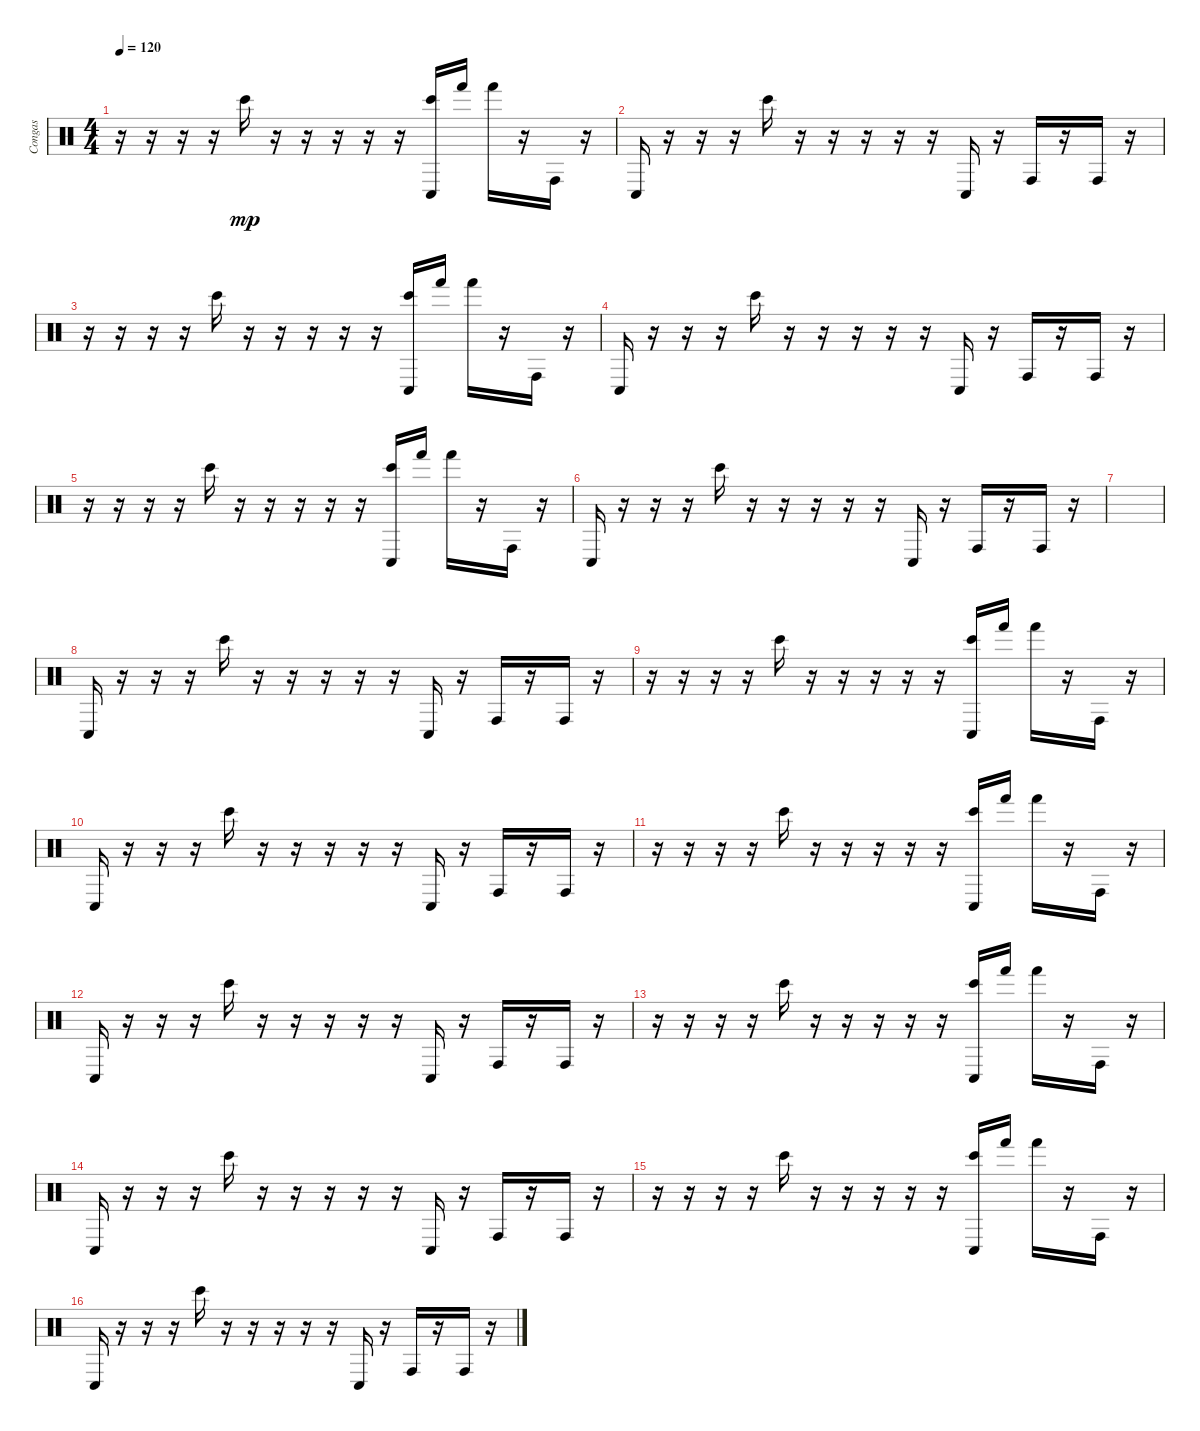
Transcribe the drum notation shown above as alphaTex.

\track ("Congas" "Congas") {instrument percussion}
\staff {score}
\articulation defaults
\ts (4 4)
\tempo 120
\clef neutral
\ks c
r.16{dy mp} r.16 r.16 r.16 "Bongo High (hit)".16 r.16 r.16 r.16 r.16 r.16 ("Bongo High (hit)" "Conga low (hit)").16 "Hand (hit)".16 "Hand (hit)".16 r.16 "Conga high (hit)".16 r.16 |
"Conga low (hit)".16 r.16 r.16 r.16 "Bongo High (hit)".16 r.16 r.16 r.16 r.16 r.16 "Conga low (hit)".16 r.16 "Conga high (hit)".16 r.16 "Conga high (hit)".16 r.16 |
r.16 r.16 r.16 r.16 "Bongo High (hit)".16 r.16 r.16 r.16 r.16 r.16 ("Bongo High (hit)" "Conga low (hit)").16 "Hand (hit)".16 "Hand (hit)".16 r.16 "Conga high (hit)".16 r.16 |
"Conga low (hit)".16 r.16 r.16 r.16 "Bongo High (hit)".16 r.16 r.16 r.16 r.16 r.16 "Conga low (hit)".16 r.16 "Conga high (hit)".16 r.16 "Conga high (hit)".16 r.16 |
r.16 r.16 r.16 r.16 "Bongo High (hit)".16 r.16 r.16 r.16 r.16 r.16 ("Bongo High (hit)" "Conga low (hit)").16 "Hand (hit)".16 "Hand (hit)".16 r.16 "Conga high (hit)".16 r.16 |
"Conga low (hit)".16 r.16 r.16 r.16 "Bongo High (hit)".16 r.16 r.16 r.16 r.16 r.16 "Conga low (hit)".16 r.16 "Conga high (hit)".16 r.16 "Conga high (hit)".16 r.16 |
|
"Conga low (hit)".16 r.16 r.16 r.16 "Bongo High (hit)".16 r.16 r.16 r.16 r.16 r.16 "Conga low (hit)".16 r.16 "Conga high (hit)".16 r.16 "Conga high (hit)".16 r.16 |
r.16 r.16 r.16 r.16 "Bongo High (hit)".16 r.16 r.16 r.16 r.16 r.16 ("Bongo High (hit)" "Conga low (hit)").16 "Hand (hit)".16 "Hand (hit)".16 r.16 "Conga high (hit)".16 r.16 |
"Conga low (hit)".16 r.16 r.16 r.16 "Bongo High (hit)".16 r.16 r.16 r.16 r.16 r.16 "Conga low (hit)".16 r.16 "Conga high (hit)".16 r.16 "Conga high (hit)".16 r.16 |
r.16 r.16 r.16 r.16 "Bongo High (hit)".16 r.16 r.16 r.16 r.16 r.16 ("Bongo High (hit)" "Conga low (hit)").16 "Hand (hit)".16 "Hand (hit)".16 r.16 "Conga high (hit)".16 r.16 |
"Conga low (hit)".16 r.16 r.16 r.16 "Bongo High (hit)".16 r.16 r.16 r.16 r.16 r.16 "Conga low (hit)".16 r.16 "Conga high (hit)".16 r.16 "Conga high (hit)".16 r.16 |
r.16 r.16 r.16 r.16 "Bongo High (hit)".16 r.16 r.16 r.16 r.16 r.16 ("Bongo High (hit)" "Conga low (hit)").16 "Hand (hit)".16 "Hand (hit)".16 r.16 "Conga high (hit)".16 r.16 |
"Conga low (hit)".16 r.16 r.16 r.16 "Bongo High (hit)".16 r.16 r.16 r.16 r.16 r.16 "Conga low (hit)".16 r.16 "Conga high (hit)".16 r.16 "Conga high (hit)".16 r.16 |
r.16 r.16 r.16 r.16 "Bongo High (hit)".16 r.16 r.16 r.16 r.16 r.16 ("Bongo High (hit)" "Conga low (hit)").16 "Hand (hit)".16 "Hand (hit)".16 r.16 "Conga high (hit)".16 r.16 |
"Conga low (hit)".16 r.16 r.16 r.16 "Bongo High (hit)".16 r.16 r.16 r.16 r.16 r.16 "Conga low (hit)".16 r.16 "Conga high (hit)".16 r.16 "Conga high (hit)".16 r.16
